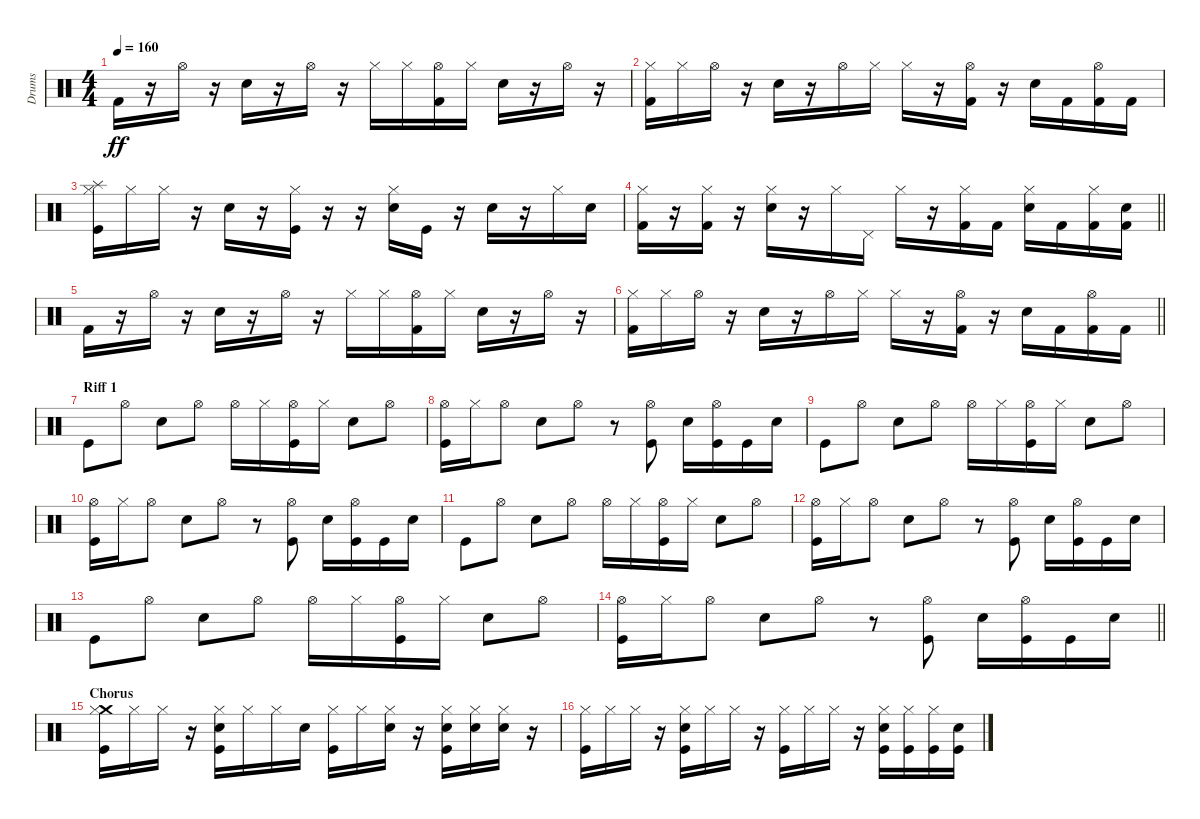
\track ("Drums" "Drums") {instrument percussion}
\staff {score}
\articulation defaults
\ts (4 4)
\tempo 160
\clef neutral
\ks c "Kick (hit) 2".16{dy ff}
r.16 "Hi-Hat (open)".16 r.16 "Snare (hit) 2".16 r.16 "Hi-Hat (open)".16 r.16 "Hi-Hat (closed)".16 "Hi-Hat (closed)".16 ("Kick (hit) 2" "Hi-Hat (open)").16 "Hi-Hat (closed)".16 "Snare (hit) 2".16 r.16 "Hi-Hat (open)".16 r.16 |
("Kick (hit) 2" "Hi-Hat (closed)").16 "Hi-Hat (closed)".16 "Hi-Hat (open)".16 r.16 "Snare (hit) 2".16 r.16 "Hi-Hat (open)".16 "Hi-Hat (closed)".16 "Hi-Hat (closed)".16 r.16 ("Kick (hit) 2" "Hi-Hat (open)").16 r.16 "Snare (hit) 2".16 "Kick (hit) 2".16 ("Kick (hit) 2" "Hi-Hat (open)").16 "Kick (hit) 2".16 |
("Kick (hit)" "Hi-Hat (closed)" "Splash (hit)").16 "Hi-Hat (closed)".16 "Hi-Hat (closed)".16 r.16 "Snare (hit) 2".16 r.16 ("Kick (hit)" "Hi-Hat (closed)").16 r.16 r.16 ("Snare (hit) 2" "Hi-Hat (closed)").16 "Kick (hit)".16 r.16 "Snare (hit) 2".16 r.16 "Hi-Hat (closed)".16 "Snare (hit) 2".16 |
\barLineRight lightlight
("Kick (hit) 2" "Hi-Hat (closed)").16 r.16 ("Kick (hit) 2" "Hi-Hat (closed)").16 r.16 ("Snare (hit) 2" "Hi-Hat (closed)").16 r.16 "Hi-Hat (closed)".16 "Pedal Hi-Hat (hit)".16 "Hi-Hat (closed)".16 r.16 ("Kick (hit) 2" "Hi-Hat (closed)").16 "Kick (hit) 2".16 ("Snare (hit) 2" "Hi-Hat (closed)").16 "Kick (hit) 2".16 ("Kick (hit) 2" "Hi-Hat (closed)").16 ("Kick (hit) 2" "Snare (hit) 2").16 |
"Kick (hit) 2".16 r.16 "Hi-Hat (open)".16 r.16 "Snare (hit) 2".16 r.16 "Hi-Hat (open)".16 r.16 "Hi-Hat (closed)".16 "Hi-Hat (closed)".16 ("Kick (hit) 2" "Hi-Hat (open)").16 "Hi-Hat (closed)".16 "Snare (hit) 2".16 r.16 "Hi-Hat (open)".16 r.16 |
\barLineRight lightlight
("Kick (hit) 2" "Hi-Hat (closed)").16 "Hi-Hat (closed)".16 "Hi-Hat (open)".16 r.16 "Snare (hit) 2".16 r.16 "Hi-Hat (open)".16 "Hi-Hat (closed)".16 "Hi-Hat (closed)".16 r.16 ("Kick (hit) 2" "Hi-Hat (open)").16 r.16 "Snare (hit) 2".16 "Kick (hit) 2".16 ("Kick (hit) 2" "Hi-Hat (open)").16 "Kick (hit) 2".16 |
\section ("" "Riff 1")
"Kick (hit)".8 "Hi-Hat (open)".8 "Snare (hit) 2".8 "Hi-Hat (open)".8 "Hi-Hat (open)".16 "Hi-Hat (closed)".16 ("Kick (hit)" "Hi-Hat (open)").16 "Hi-Hat (closed)".16 "Snare (hit) 2".8 "Hi-Hat (open)".8 |
("Kick (hit)" "Hi-Hat (open)").16 "Hi-Hat (closed)".16 "Hi-Hat (open)".8 "Snare (hit) 2".8 "Hi-Hat (open)".8 r.8 ("Kick (hit)" "Hi-Hat (open)").8 "Snare (hit) 2".16 ("Kick (hit)" "Hi-Hat (open)").16 "Kick (hit)".16 "Snare (hit) 2".16 |
"Kick (hit)".8 "Hi-Hat (open)".8 "Snare (hit) 2".8 "Hi-Hat (open)".8 "Hi-Hat (open)".16 "Hi-Hat (closed)".16 ("Kick (hit)" "Hi-Hat (open)").16 "Hi-Hat (closed)".16 "Snare (hit) 2".8 "Hi-Hat (open)".8 |
("Kick (hit)" "Hi-Hat (open)").16 "Hi-Hat (closed)".16 "Hi-Hat (open)".8 "Snare (hit) 2".8 "Hi-Hat (open)".8 r.8 ("Kick (hit)" "Hi-Hat (open)").8 "Snare (hit) 2".16 ("Kick (hit)" "Hi-Hat (open)").16 "Kick (hit)".16 "Snare (hit) 2".16 |
"Kick (hit)".8 "Hi-Hat (open)".8 "Snare (hit) 2".8 "Hi-Hat (open)".8 "Hi-Hat (open)".16 "Hi-Hat (closed)".16 ("Kick (hit)" "Hi-Hat (open)").16 "Hi-Hat (closed)".16 "Snare (hit) 2".8 "Hi-Hat (open)".8 |
("Kick (hit)" "Hi-Hat (open)").16 "Hi-Hat (closed)".16 "Hi-Hat (open)".8 "Snare (hit) 2".8 "Hi-Hat (open)".8 r.8 ("Kick (hit)" "Hi-Hat (open)").8 "Snare (hit) 2".16 ("Kick (hit)" "Hi-Hat (open)").16 "Kick (hit)".16 "Snare (hit) 2".16 |
"Kick (hit)".8 "Hi-Hat (open)".8 "Snare (hit) 2".8 "Hi-Hat (open)".8 "Hi-Hat (open)".16 "Hi-Hat (closed)".16 ("Kick (hit)" "Hi-Hat (open)").16 "Hi-Hat (closed)".16 "Snare (hit) 2".8 "Hi-Hat (open)".8 |
\barLineRight lightlight
("Kick (hit)" "Hi-Hat (open)").16 "Hi-Hat (closed)".16 "Hi-Hat (open)".8 "Snare (hit) 2".8 "Hi-Hat (open)".8 r.8 ("Kick (hit)" "Hi-Hat (open)").8 "Snare (hit) 2".16 ("Kick (hit)" "Hi-Hat (open)").16 "Kick (hit)".16 "Snare (hit) 2".16 |
\section ("" "Chorus")
("Kick (hit)" "Crash medium (hit)" "Hi-Hat (closed)").16 "Hi-Hat (closed)".16 "Hi-Hat (closed)".16 r.16 ("Kick (hit)" "Snare (hit) 2" "Hi-Hat (closed)").16 "Hi-Hat (closed)".16 "Hi-Hat (closed)".16 "Electric Snare (hit)".16 ("Kick (hit)" "Hi-Hat (closed)").16 "Hi-Hat (closed)".16 ("Electric Snare (hit)" "Hi-Hat (closed)").16 r.16 ("Kick (hit)" "Snare (hit) 2" "Hi-Hat (closed)").16 ("Electric Snare (hit)" "Hi-Hat (closed)").16 ("Electric Snare (hit)" "Hi-Hat (closed)").16 r.16 |
("Kick (hit)" "Hi-Hat (closed)").16 "Hi-Hat (closed)".16 "Hi-Hat (closed)".16 r.16 ("Kick (hit)" "Snare (hit) 2" "Hi-Hat (closed)").16 "Hi-Hat (closed)".16 "Hi-Hat (closed)".16 r.16 ("Kick (hit)" "Hi-Hat (closed)").16 "Hi-Hat (closed)".16 "Hi-Hat (closed)".16 r.16 ("Kick (hit)" "Snare (hit) 2" "Hi-Hat (closed)").16 ("Kick (hit)" "Hi-Hat (closed)").16 ("Kick (hit)" "Hi-Hat (closed)").16 ("Kick (hit)" "Snare (hit) 2").16
